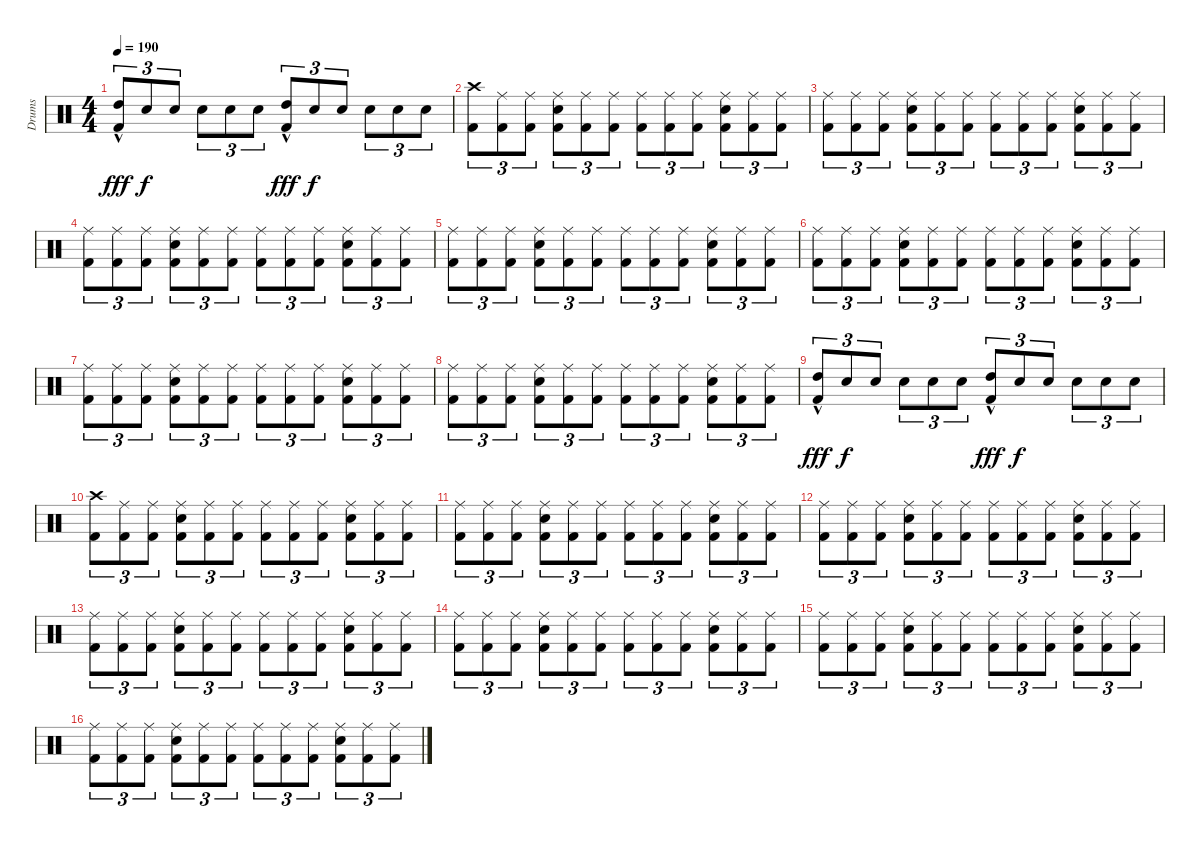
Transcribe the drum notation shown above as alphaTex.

\track ("Drums" "Drums") {instrument percussion}
\staff {score}
\articulation defaults
\ts (4 4)
\tempo 190
\clef neutral
\ks aminor
("Kick (hit) 2" "High Tom (hit)"{hac}).8{tu (3 2) dy fff} "Electric Snare (hit)".8{tu (3 2) dy f} "Electric Snare (hit)".8{tu (3 2)} "Electric Snare (hit)".8{tu (3 2)} "Electric Snare (hit)".8{tu (3 2)} "Electric Snare (hit)".8{tu (3 2)} ("Kick (hit) 2" "High Tom (hit)"{hac}).8{tu (3 2) dy fff} "Electric Snare (hit)".8{tu (3 2) dy f} "Electric Snare (hit)".8{tu (3 2)} "Electric Snare (hit)".8{tu (3 2)} "Electric Snare (hit)".8{tu (3 2)} "Electric Snare (hit)".8{tu (3 2)} |
("Kick (hit) 2" "Crash high (hit)").8{tu (3 2)} ("Kick (hit) 2" "Ride (middle)").8{tu (3 2)} ("Kick (hit) 2" "Ride (middle)").8{tu (3 2)} ("Kick (hit) 2" "Electric Snare (hit)" "Ride (middle)").8{tu (3 2)} ("Kick (hit) 2" "Ride (middle)").8{tu (3 2)} ("Kick (hit) 2" "Ride (middle)").8{tu (3 2)} ("Kick (hit) 2" "Ride (middle)").8{tu (3 2)} ("Kick (hit) 2" "Ride (middle)").8{tu (3 2)} ("Kick (hit) 2" "Ride (middle)").8{tu (3 2)} ("Kick (hit) 2" "Electric Snare (hit)" "Ride (middle)").8{tu (3 2)} ("Kick (hit) 2" "Ride (middle)").8{tu (3 2)} ("Kick (hit) 2" "Ride (middle)").8{tu (3 2)} |
("Kick (hit) 2" "Ride (middle)").8{tu (3 2)} ("Kick (hit) 2" "Ride (middle)").8{tu (3 2)} ("Kick (hit) 2" "Ride (middle)").8{tu (3 2)} ("Kick (hit) 2" "Electric Snare (hit)" "Ride (middle)").8{tu (3 2)} ("Kick (hit) 2" "Ride (middle)").8{tu (3 2)} ("Kick (hit) 2" "Ride (middle)").8{tu (3 2)} ("Kick (hit) 2" "Ride (middle)").8{tu (3 2)} ("Kick (hit) 2" "Ride (middle)").8{tu (3 2)} ("Kick (hit) 2" "Ride (middle)").8{tu (3 2)} ("Kick (hit) 2" "Electric Snare (hit)" "Ride (middle)").8{tu (3 2)} ("Kick (hit) 2" "Ride (middle)").8{tu (3 2)} ("Kick (hit) 2" "Ride (middle)").8{tu (3 2)} |
("Kick (hit) 2" "Ride (middle)").8{tu (3 2)} ("Kick (hit) 2" "Ride (middle)").8{tu (3 2)} ("Kick (hit) 2" "Ride (middle)").8{tu (3 2)} ("Kick (hit) 2" "Electric Snare (hit)" "Ride (middle)").8{tu (3 2)} ("Kick (hit) 2" "Ride (middle)").8{tu (3 2)} ("Kick (hit) 2" "Ride (middle)").8{tu (3 2)} ("Kick (hit) 2" "Ride (middle)").8{tu (3 2)} ("Kick (hit) 2" "Ride (middle)").8{tu (3 2)} ("Kick (hit) 2" "Ride (middle)").8{tu (3 2)} ("Kick (hit) 2" "Electric Snare (hit)" "Ride (middle)").8{tu (3 2)} ("Kick (hit) 2" "Ride (middle)").8{tu (3 2)} ("Kick (hit) 2" "Ride (middle)").8{tu (3 2)} |
("Kick (hit) 2" "Ride (middle)").8{tu (3 2)} ("Kick (hit) 2" "Ride (middle)").8{tu (3 2)} ("Kick (hit) 2" "Ride (middle)").8{tu (3 2)} ("Kick (hit) 2" "Electric Snare (hit)" "Ride (middle)").8{tu (3 2)} ("Kick (hit) 2" "Ride (middle)").8{tu (3 2)} ("Kick (hit) 2" "Ride (middle)").8{tu (3 2)} ("Kick (hit) 2" "Ride (middle)").8{tu (3 2)} ("Kick (hit) 2" "Ride (middle)").8{tu (3 2)} ("Kick (hit) 2" "Ride (middle)").8{tu (3 2)} ("Kick (hit) 2" "Electric Snare (hit)" "Ride (middle)").8{tu (3 2)} ("Kick (hit) 2" "Ride (middle)").8{tu (3 2)} ("Kick (hit) 2" "Ride (middle)").8{tu (3 2)} |
("Kick (hit) 2" "Ride (middle)").8{tu (3 2)} ("Kick (hit) 2" "Ride (middle)").8{tu (3 2)} ("Kick (hit) 2" "Ride (middle)").8{tu (3 2)} ("Kick (hit) 2" "Electric Snare (hit)" "Ride (middle)").8{tu (3 2)} ("Kick (hit) 2" "Ride (middle)").8{tu (3 2)} ("Kick (hit) 2" "Ride (middle)").8{tu (3 2)} ("Kick (hit) 2" "Ride (middle)").8{tu (3 2)} ("Kick (hit) 2" "Ride (middle)").8{tu (3 2)} ("Kick (hit) 2" "Ride (middle)").8{tu (3 2)} ("Kick (hit) 2" "Electric Snare (hit)" "Ride (middle)").8{tu (3 2)} ("Kick (hit) 2" "Ride (middle)").8{tu (3 2)} ("Kick (hit) 2" "Ride (middle)").8{tu (3 2)} |
("Kick (hit) 2" "Ride (middle)").8{tu (3 2)} ("Kick (hit) 2" "Ride (middle)").8{tu (3 2)} ("Kick (hit) 2" "Ride (middle)").8{tu (3 2)} ("Kick (hit) 2" "Electric Snare (hit)" "Ride (middle)").8{tu (3 2)} ("Kick (hit) 2" "Ride (middle)").8{tu (3 2)} ("Kick (hit) 2" "Ride (middle)").8{tu (3 2)} ("Kick (hit) 2" "Ride (middle)").8{tu (3 2)} ("Kick (hit) 2" "Ride (middle)").8{tu (3 2)} ("Kick (hit) 2" "Ride (middle)").8{tu (3 2)} ("Kick (hit) 2" "Electric Snare (hit)" "Ride (middle)").8{tu (3 2)} ("Kick (hit) 2" "Ride (middle)").8{tu (3 2)} ("Kick (hit) 2" "Ride (middle)").8{tu (3 2)} |
("Kick (hit) 2" "Ride (middle)").8{tu (3 2)} ("Kick (hit) 2" "Ride (middle)").8{tu (3 2)} ("Kick (hit) 2" "Ride (middle)").8{tu (3 2)} ("Kick (hit) 2" "Electric Snare (hit)" "Ride (middle)").8{tu (3 2)} ("Kick (hit) 2" "Ride (middle)").8{tu (3 2)} ("Kick (hit) 2" "Ride (middle)").8{tu (3 2)} ("Kick (hit) 2" "Ride (middle)").8{tu (3 2)} ("Kick (hit) 2" "Ride (middle)").8{tu (3 2)} ("Kick (hit) 2" "Ride (middle)").8{tu (3 2)} ("Kick (hit) 2" "Electric Snare (hit)" "Ride (middle)").8{tu (3 2)} ("Kick (hit) 2" "Ride (middle)").8{tu (3 2)} ("Kick (hit) 2" "Ride (middle)").8{tu (3 2)} |
("Kick (hit) 2" "High Tom (hit)"{hac}).8{tu (3 2) dy fff} "Electric Snare (hit)".8{tu (3 2) dy f} "Electric Snare (hit)".8{tu (3 2)} "Electric Snare (hit)".8{tu (3 2)} "Electric Snare (hit)".8{tu (3 2)} "Electric Snare (hit)".8{tu (3 2)} ("Kick (hit) 2" "High Tom (hit)"{hac}).8{tu (3 2) dy fff} "Electric Snare (hit)".8{tu (3 2) dy f} "Electric Snare (hit)".8{tu (3 2)} "Electric Snare (hit)".8{tu (3 2)} "Electric Snare (hit)".8{tu (3 2)} "Electric Snare (hit)".8{tu (3 2)} |
("Kick (hit) 2" "Crash high (hit)").8{tu (3 2)} ("Kick (hit) 2" "Ride (middle)").8{tu (3 2)} ("Kick (hit) 2" "Ride (middle)").8{tu (3 2)} ("Kick (hit) 2" "Electric Snare (hit)" "Ride (middle)").8{tu (3 2)} ("Kick (hit) 2" "Ride (middle)").8{tu (3 2)} ("Kick (hit) 2" "Ride (middle)").8{tu (3 2)} ("Kick (hit) 2" "Ride (middle)").8{tu (3 2)} ("Kick (hit) 2" "Ride (middle)").8{tu (3 2)} ("Kick (hit) 2" "Ride (middle)").8{tu (3 2)} ("Kick (hit) 2" "Electric Snare (hit)" "Ride (middle)").8{tu (3 2)} ("Kick (hit) 2" "Ride (middle)").8{tu (3 2)} ("Kick (hit) 2" "Ride (middle)").8{tu (3 2)} |
("Kick (hit) 2" "Ride (middle)").8{tu (3 2)} ("Kick (hit) 2" "Ride (middle)").8{tu (3 2)} ("Kick (hit) 2" "Ride (middle)").8{tu (3 2)} ("Kick (hit) 2" "Electric Snare (hit)" "Ride (middle)").8{tu (3 2)} ("Kick (hit) 2" "Ride (middle)").8{tu (3 2)} ("Kick (hit) 2" "Ride (middle)").8{tu (3 2)} ("Kick (hit) 2" "Ride (middle)").8{tu (3 2)} ("Kick (hit) 2" "Ride (middle)").8{tu (3 2)} ("Kick (hit) 2" "Ride (middle)").8{tu (3 2)} ("Kick (hit) 2" "Electric Snare (hit)" "Ride (middle)").8{tu (3 2)} ("Kick (hit) 2" "Ride (middle)").8{tu (3 2)} ("Kick (hit) 2" "Ride (middle)").8{tu (3 2)} |
("Kick (hit) 2" "Ride (middle)").8{tu (3 2)} ("Kick (hit) 2" "Ride (middle)").8{tu (3 2)} ("Kick (hit) 2" "Ride (middle)").8{tu (3 2)} ("Kick (hit) 2" "Electric Snare (hit)" "Ride (middle)").8{tu (3 2)} ("Kick (hit) 2" "Ride (middle)").8{tu (3 2)} ("Kick (hit) 2" "Ride (middle)").8{tu (3 2)} ("Kick (hit) 2" "Ride (middle)").8{tu (3 2)} ("Kick (hit) 2" "Ride (middle)").8{tu (3 2)} ("Kick (hit) 2" "Ride (middle)").8{tu (3 2)} ("Kick (hit) 2" "Electric Snare (hit)" "Ride (middle)").8{tu (3 2)} ("Kick (hit) 2" "Ride (middle)").8{tu (3 2)} ("Kick (hit) 2" "Ride (middle)").8{tu (3 2)} |
("Kick (hit) 2" "Ride (middle)").8{tu (3 2)} ("Kick (hit) 2" "Ride (middle)").8{tu (3 2)} ("Kick (hit) 2" "Ride (middle)").8{tu (3 2)} ("Kick (hit) 2" "Electric Snare (hit)" "Ride (middle)").8{tu (3 2)} ("Kick (hit) 2" "Ride (middle)").8{tu (3 2)} ("Kick (hit) 2" "Ride (middle)").8{tu (3 2)} ("Kick (hit) 2" "Ride (middle)").8{tu (3 2)} ("Kick (hit) 2" "Ride (middle)").8{tu (3 2)} ("Kick (hit) 2" "Ride (middle)").8{tu (3 2)} ("Kick (hit) 2" "Electric Snare (hit)" "Ride (middle)").8{tu (3 2)} ("Kick (hit) 2" "Ride (middle)").8{tu (3 2)} ("Kick (hit) 2" "Ride (middle)").8{tu (3 2)} |
("Kick (hit) 2" "Ride (middle)").8{tu (3 2)} ("Kick (hit) 2" "Ride (middle)").8{tu (3 2)} ("Kick (hit) 2" "Ride (middle)").8{tu (3 2)} ("Kick (hit) 2" "Electric Snare (hit)" "Ride (middle)").8{tu (3 2)} ("Kick (hit) 2" "Ride (middle)").8{tu (3 2)} ("Kick (hit) 2" "Ride (middle)").8{tu (3 2)} ("Kick (hit) 2" "Ride (middle)").8{tu (3 2)} ("Kick (hit) 2" "Ride (middle)").8{tu (3 2)} ("Kick (hit) 2" "Ride (middle)").8{tu (3 2)} ("Kick (hit) 2" "Electric Snare (hit)" "Ride (middle)").8{tu (3 2)} ("Kick (hit) 2" "Ride (middle)").8{tu (3 2)} ("Kick (hit) 2" "Ride (middle)").8{tu (3 2)} |
("Kick (hit) 2" "Ride (middle)").8{tu (3 2)} ("Kick (hit) 2" "Ride (middle)").8{tu (3 2)} ("Kick (hit) 2" "Ride (middle)").8{tu (3 2)} ("Kick (hit) 2" "Electric Snare (hit)" "Ride (middle)").8{tu (3 2)} ("Kick (hit) 2" "Ride (middle)").8{tu (3 2)} ("Kick (hit) 2" "Ride (middle)").8{tu (3 2)} ("Kick (hit) 2" "Ride (middle)").8{tu (3 2)} ("Kick (hit) 2" "Ride (middle)").8{tu (3 2)} ("Kick (hit) 2" "Ride (middle)").8{tu (3 2)} ("Kick (hit) 2" "Electric Snare (hit)" "Ride (middle)").8{tu (3 2)} ("Kick (hit) 2" "Ride (middle)").8{tu (3 2)} ("Kick (hit) 2" "Ride (middle)").8{tu (3 2)} |
("Kick (hit) 2" "Ride (middle)").8{tu (3 2)} ("Kick (hit) 2" "Ride (middle)").8{tu (3 2)} ("Kick (hit) 2" "Ride (middle)").8{tu (3 2)} ("Kick (hit) 2" "Electric Snare (hit)" "Ride (middle)").8{tu (3 2)} ("Kick (hit) 2" "Ride (middle)").8{tu (3 2)} ("Kick (hit) 2" "Ride (middle)").8{tu (3 2)} ("Kick (hit) 2" "Ride (middle)").8{tu (3 2)} ("Kick (hit) 2" "Ride (middle)").8{tu (3 2)} ("Kick (hit) 2" "Ride (middle)").8{tu (3 2)} ("Kick (hit) 2" "Electric Snare (hit)" "Ride (middle)").8{tu (3 2)} ("Kick (hit) 2" "Ride (middle)").8{tu (3 2)} ("Kick (hit) 2" "Ride (middle)").8{tu (3 2)}
